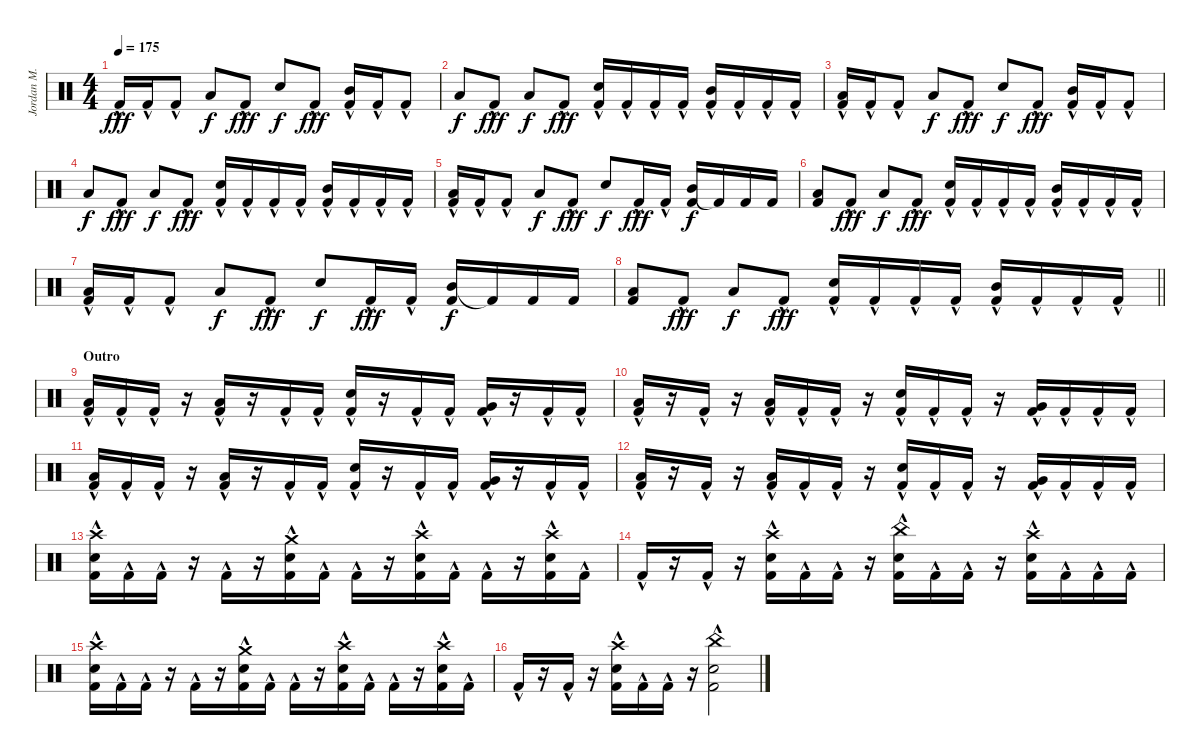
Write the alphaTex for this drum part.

\track ("Jordan M." "Jordan M.") {instrument percussion}
\staff {score}
\articulation defaults
\ts (4 4)
\tempo 175
\clef neutral
\ks c "Kick (hit) 2"{hac}.16{dy fff} "Kick (hit) 2"{hac}.16 "Kick (hit) 2"{hac}.8 "Low Tom (hit)".8{dy f} "Kick (hit) 2"{hac}.8{dy fff} "Electric Snare (hit)".8{dy f} "Kick (hit) 2"{hac}.8{dy fff}
("Mid Tom (hit)" "Kick (hit) 2"{hac}).16 "Kick (hit) 2"{hac}.16 "Kick (hit) 2"{hac}.8 |
"Low Tom (hit)".8{dy f} "Kick (hit) 2"{hac}.8{dy fff} "Low Tom (hit)".8{dy f} "Kick (hit) 2"{hac}.8{dy fff} ("Electric Snare (hit)" "Kick (hit) 2"{hac}).16 "Kick (hit) 2"{hac}.16 "Kick (hit) 2"{hac}.16 "Kick (hit) 2"{hac}.16 ("Mid Tom (hit)" "Kick (hit) 2"{hac}).16 "Kick (hit) 2"{hac}.16 "Kick (hit) 2"{hac}.16 "Kick (hit) 2"{hac}.16 |
("Low Tom (hit)" "Kick (hit) 2"{hac}).16 "Kick (hit) 2"{hac}.16 "Kick (hit) 2"{hac}.8 "Low Tom (hit)".8{dy f} "Kick (hit) 2"{hac}.8{dy fff} "Electric Snare (hit)".8{dy f} "Kick (hit) 2"{hac}.8{dy fff} ("Mid Tom (hit)" "Kick (hit) 2"{hac}).16 "Kick (hit) 2"{hac}.16 "Kick (hit) 2"{hac}.8 |
"Low Tom (hit)".8{dy f} "Kick (hit) 2"{hac}.8{dy fff} "Low Tom (hit)".8{dy f} "Kick (hit) 2"{hac}.8{dy fff} ("Electric Snare (hit)" "Kick (hit) 2"{hac}).16 "Kick (hit) 2"{hac}.16 "Kick (hit) 2"{hac}.16 "Kick (hit) 2"{hac}.16 ("Mid Tom (hit)" "Kick (hit) 2"{hac}).16 "Kick (hit) 2"{hac}.16 "Kick (hit) 2"{hac}.16 "Kick (hit) 2"{hac}.16 |
("Low Tom (hit)" "Kick (hit) 2"{hac}).16 "Kick (hit) 2"{hac}.16 "Kick (hit) 2"{hac}.8 "Low Tom (hit)".8{dy f} "Kick (hit) 2"{hac}.8{dy fff} "Electric Snare (hit)".8{dy f} "Kick (hit) 2"{hac}.16{dy fff} "Kick (hit) 2"{hac}.16 ("Mid Tom (hit)" "Kick (hit) 2").16{dy f} "Kick (hit) 2"{t}.16 "Kick (hit) 2".16 "Kick (hit) 2".16 |
("Low Tom (hit)" "Kick (hit) 2").8 "Kick (hit) 2"{hac}.8{dy fff} "Low Tom (hit)".8{dy f} "Kick (hit) 2"{hac}.8{dy fff} ("Electric Snare (hit)" "Kick (hit) 2"{hac}).16 "Kick (hit) 2"{hac}.16 "Kick (hit) 2"{hac}.16 "Kick (hit) 2"{hac}.16 ("Mid Tom (hit)" "Kick (hit) 2"{hac}).16 "Kick (hit) 2"{hac}.16 "Kick (hit) 2"{hac}.16 "Kick (hit) 2"{hac}.16 |
("Low Tom (hit)" "Kick (hit) 2"{hac}).16 "Kick (hit) 2"{hac}.16 "Kick (hit) 2"{hac}.8 "Low Tom (hit)".8{dy f} "Kick (hit) 2"{hac}.8{dy fff} "Electric Snare (hit)".8{dy f} "Kick (hit) 2"{hac}.16{dy fff} "Kick (hit) 2"{hac}.16 ("Mid Tom (hit)" "Kick (hit) 2").16{dy f} "Kick (hit) 2"{t}.16 "Kick (hit) 2".16 "Kick (hit) 2".16 |
\barLineRight lightlight
("Low Tom (hit)" "Kick (hit) 2").8 "Kick (hit) 2"{hac}.8{dy fff} "Low Tom (hit)".8{dy f} "Kick (hit) 2"{hac}.8{dy fff} ("Electric Snare (hit)" "Kick (hit) 2"{hac}).16 "Kick (hit) 2"{hac}.16 "Kick (hit) 2"{hac}.16 "Kick (hit) 2"{hac}.16 ("Mid Tom (hit)" "Kick (hit) 2"{hac}).16 "Kick (hit) 2"{hac}.16 "Kick (hit) 2"{hac}.16 "Kick (hit) 2"{hac}.16 |
\section ("" "Outro")
("Low Floor Tom (hit)" "Kick (hit) 2"{hac}).16 "Kick (hit) 2"{hac}.16 "Kick (hit) 2"{hac}.16 r.16 ("Low Floor Tom (hit)" "Kick (hit) 2"{hac}).16 r.16 "Kick (hit) 2"{hac}.16 "Kick (hit) 2"{hac}.16 ("Electric Snare (hit)" "Kick (hit) 2"{hac}).16 r.16 "Kick (hit) 2"{hac}.16 "Kick (hit) 2"{hac}.16 ("Very Low Tom (hit)" "Kick (hit) 2"{hac}).16 r.16 "Kick (hit) 2"{hac}.16 "Kick (hit) 2"{hac}.16 |
("Low Floor Tom (hit)" "Kick (hit) 2"{hac}).16 r.16 "Kick (hit) 2"{hac}.16 r.16 ("Low Floor Tom (hit)" "Kick (hit) 2"{hac}).16 "Kick (hit) 2"{hac}.16 "Kick (hit) 2"{hac}.16 r.16 ("Electric Snare (hit)" "Kick (hit) 2"{hac}).16 "Kick (hit) 2"{hac}.16 "Kick (hit) 2"{hac}.16 r.16 ("Very Low Tom (hit)" "Kick (hit) 2"{hac}).16 "Kick (hit) 2"{hac}.16 "Kick (hit) 2"{hac}.16 "Kick (hit) 2"{hac}.16 |
("Low Floor Tom (hit)" "Kick (hit) 2"{hac}).16 "Kick (hit) 2"{hac}.16 "Kick (hit) 2"{hac}.16 r.16 ("Low Floor Tom (hit)" "Kick (hit) 2"{hac}).16 r.16 "Kick (hit) 2"{hac}.16 "Kick (hit) 2"{hac}.16 ("Electric Snare (hit)" "Kick (hit) 2"{hac}).16 r.16 "Kick (hit) 2"{hac}.16 "Kick (hit) 2"{hac}.16 ("Very Low Tom (hit)" "Kick (hit) 2"{hac}).16 r.16 "Kick (hit) 2"{hac}.16 "Kick (hit) 2"{hac}.16 |
("Low Floor Tom (hit)" "Kick (hit) 2"{hac}).16 r.16 "Kick (hit) 2"{hac}.16 r.16 ("Low Floor Tom (hit)" "Kick (hit) 2"{hac}).16 "Kick (hit) 2"{hac}.16 "Kick (hit) 2"{hac}.16 r.16 ("Electric Snare (hit)" "Kick (hit) 2"{hac}).16 "Kick (hit) 2"{hac}.16 "Kick (hit) 2"{hac}.16 r.16 ("Very Low Tom (hit)" "Kick (hit) 2"{hac}).16 "Kick (hit) 2"{hac}.16 "Kick (hit) 2"{hac}.16 "Kick (hit) 2"{hac}.16 |
("Crash high (hit)" "Electric Snare (hit)" "Kick (hit) 2"{hac}).16 "Kick (hit) 2"{hac}.16 "Kick (hit) 2"{hac}.16 r.16 "Kick (hit) 2"{hac}.16 r.16 ("Crash medium (hit)" "Electric Snare (hit)" "Kick (hit) 2"{hac}).16 "Kick (hit) 2"{hac}.16 "Kick (hit) 2"{hac}.16 r.16 ("Crash high (hit)" "Electric Snare (hit)" "Kick (hit) 2"{hac}).16 "Kick (hit) 2"{hac}.16 "Kick (hit) 2"{hac}.16 r.16 ("Crash high (hit)" "Electric Snare (hit)" "Kick (hit) 2"{hac}).16 "Kick (hit) 2"{hac}.16 |
"Kick (hit) 2"{hac}.16 r.16 "Kick (hit) 2"{hac}.16 r.16 ("Crash high (hit)" "Electric Snare (hit)" "Kick (hit) 2"{hac}).16 "Kick (hit) 2"{hac}.16 "Kick (hit) 2"{hac}.16 r.16 ("China (hit)" "Electric Snare (hit)" "Kick (hit) 2"{hac}).16 "Kick (hit) 2"{hac}.16 "Kick (hit) 2"{hac}.16 r.16 ("Crash high (hit)" "Electric Snare (hit)" "Kick (hit) 2"{hac}).16 "Kick (hit) 2"{hac}.16 "Kick (hit) 2"{hac}.16 "Kick (hit) 2"{hac}.16 |
("Crash high (hit)" "Electric Snare (hit)" "Kick (hit) 2"{hac}).16 "Kick (hit) 2"{hac}.16 "Kick (hit) 2"{hac}.16 r.16 "Kick (hit) 2"{hac}.16 r.16 ("Crash medium (hit)" "Electric Snare (hit)" "Kick (hit) 2"{hac}).16 "Kick (hit) 2"{hac}.16 "Kick (hit) 2"{hac}.16 r.16 ("Crash high (hit)" "Electric Snare (hit)" "Kick (hit) 2"{hac}).16 "Kick (hit) 2"{hac}.16 "Kick (hit) 2"{hac}.16 r.16 ("Crash high (hit)" "Electric Snare (hit)" "Kick (hit) 2"{hac}).16 "Kick (hit) 2"{hac}.16 |
"Kick (hit) 2"{hac}.16 r.16 "Kick (hit) 2"{hac}.16 r.16 ("Crash high (hit)" "Electric Snare (hit)" "Kick (hit) 2"{hac}).16 "Kick (hit) 2"{hac}.16 "Kick (hit) 2"{hac}.16 r.16 ("China (hit)" "Electric Snare (hit)" "Kick (hit) 2"{hac}).2
